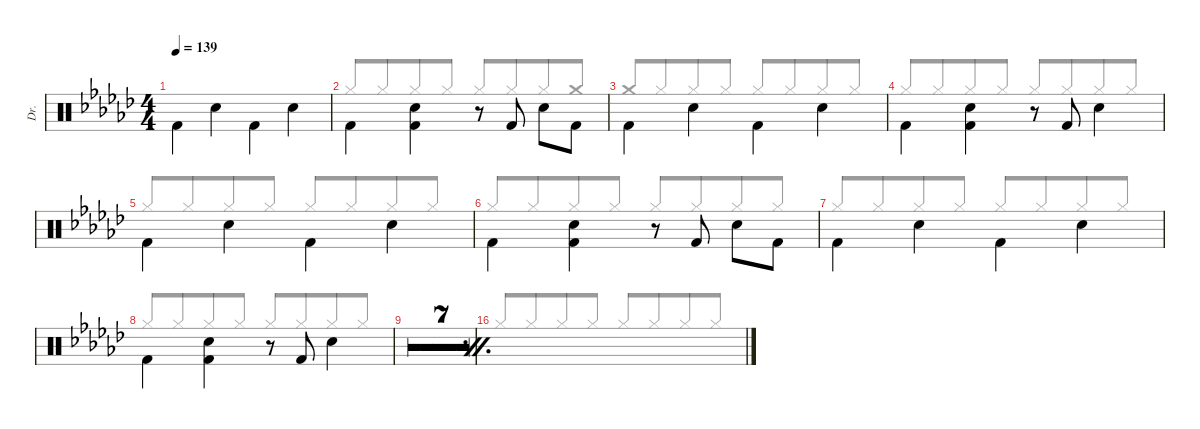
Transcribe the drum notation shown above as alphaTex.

\defaultSystemsLayout 4
\hideDynamics
\bracketExtendMode groupsimilarinstruments
\otherSystemsTrackNameOrientation horizontal
\track ("Drums" "Dr.") {multiBarRest instrument percussion}
\staff {score}
\articulation defaults
\voice
\ts (4 4)
\tempo 139
\clef neutral
\ks gb "Kick (hit) 2"{acc forcenatural}.4{dy f beam Down} "Snare (hit) 2"{acc forcenatural}.4{beam Down} "Kick (hit) 2"{acc forcenatural}.4{beam Down} "Snare (hit) 2"{acc forcenatural}.4{beam Down}
|
"Kick (hit) 2"{acc forcenatural}.4{beam Down} ("Kick (hit) 2"{acc forcenatural} "Snare (hit) 2"{acc forcenatural}).4{beam Down} r.8{beam Up} "Kick (hit) 2"{acc forcenatural}.8{beam Down} "Snare (hit) 2"{acc forcenatural}.8{beam Down} "Kick (hit) 2"{acc forcenatural}.8{beam Down} |
"Kick (hit) 2"{acc forcenatural}.4{beam Down} "Snare (hit) 2"{acc forcenatural}.4{beam Down} "Kick (hit) 2"{acc forcenatural}.4{beam Down} "Snare (hit) 2"{acc forcenatural}.4{beam Down} |
"Kick (hit) 2"{acc forcenatural}.4{beam Down} ("Kick (hit) 2"{acc forcenatural} "Snare (hit) 2"{acc forcenatural}).4{beam Down} r.8{beam Up} "Kick (hit) 2"{acc forcenatural}.8{beam Down} "Snare (hit) 2"{acc forcenatural}.4{beam Down} |
"Kick (hit) 2"{acc forcenatural}.4{beam Down} "Snare (hit) 2"{acc forcenatural}.4{beam Down} "Kick (hit) 2"{acc forcenatural}.4{beam Down} "Snare (hit) 2"{acc forcenatural}.4{beam Down} |
"Kick (hit) 2"{acc forcenatural}.4{beam Down} ("Kick (hit) 2"{acc forcenatural} "Snare (hit) 2"{acc forcenatural}).4{beam Down} r.8{beam Up} "Kick (hit) 2"{acc forcenatural}.8{beam Down} "Snare (hit) 2"{acc forcenatural}.8{beam Down} "Kick (hit) 2"{acc forcenatural}.8{beam Down} |
"Kick (hit) 2"{acc forcenatural}.4{beam Down} "Snare (hit) 2"{acc forcenatural}.4{beam Down} "Kick (hit) 2"{acc forcenatural}.4{beam Down} "Snare (hit) 2"{acc forcenatural}.4{beam Down} |
"Kick (hit) 2"{acc forcenatural}.4{beam Down} ("Kick (hit) 2"{acc forcenatural} "Snare (hit) 2"{acc forcenatural}).4{beam Down} r.8{beam Up} "Kick (hit) 2"{acc forcenatural}.8{beam Down} "Snare (hit) 2"{acc forcenatural}.4{beam Down} |
\simile firstofdouble
|
\simile secondofdouble
|
\simile firstofdouble
|
\simile secondofdouble
|
\simile firstofdouble
|
\simile secondofdouble
|
\simile firstofdouble
|
\simile secondofdouble
\voice
\clef neutral
\ottava regular
\simile none
\ks gb "Hi-Hat (closed)"{acc forcenatural}.8{dy f beam Up} "Hi-Hat (closed)"{acc forcenatural}.8{beam Up beam merge} "Hi-Hat (closed)"{acc forcenatural}.8{beam Up} "Hi-Hat (closed)"{acc forcenatural}.8{beam Up} "Hi-Hat (closed)"{acc forcenatural}.8{beam Up} "Hi-Hat (closed)"{acc forcenatural}.8{beam Up beam merge} "Hi-Hat (closed)"{acc forcenatural}.8{beam Up} "Hi-Hat (closed)"{acc forcenatural}.8{beam Up}
|
"Hi-Hat (closed)"{acc forcenatural}.8{beam Up beam merge} "Hi-Hat (closed)"{acc forcenatural}.8{beam Up beam merge} "Hi-Hat (closed)"{acc forcenatural}.8{beam Up} "Hi-Hat (closed)"{acc forcenatural}.8{beam Up} "Hi-Hat (closed)"{acc forcenatural}.8{beam Up} "Hi-Hat (closed)"{acc forcenatural}.8{beam Up beam merge} "Hi-Hat (closed)"{acc forcenatural}.8{beam Up beam merge} "Crash medium (hit)"{acc forcenatural}.8{beam Up} |
"Crash medium (hit)"{acc forcenatural}.8{beam Up} "Hi-Hat (closed)"{acc forcenatural}.8{beam Up beam merge} "Hi-Hat (closed)"{acc forcenatural}.8{beam Up} "Hi-Hat (closed)"{acc forcenatural}.8{beam Up} "Hi-Hat (closed)"{acc forcenatural}.8{beam Up} "Hi-Hat (closed)"{acc forcenatural}.8{beam Up beam merge} "Hi-Hat (closed)"{acc forcenatural}.8{beam Up} "Hi-Hat (closed)"{acc forcenatural}.8{beam Up} |
"Hi-Hat (closed)"{acc forcenatural}.8{beam Up} "Hi-Hat (closed)"{acc forcenatural}.8{beam Up beam merge} "Hi-Hat (closed)"{acc forcenatural}.8{beam Up} "Hi-Hat (closed)"{acc forcenatural}.8{beam Up} "Hi-Hat (closed)"{acc forcenatural}.8{beam Up beam merge} "Hi-Hat (closed)"{acc forcenatural}.8{beam Up beam merge} "Hi-Hat (closed)"{acc forcenatural}.8{beam Up beam merge} "Hi-Hat (closed)"{acc forcenatural}.8{beam Up} |
"Hi-Hat (closed)"{acc forcenatural}.8{beam Up} "Hi-Hat (closed)"{acc forcenatural}.8{beam Up beam merge} "Hi-Hat (closed)"{acc forcenatural}.8{beam Up} "Hi-Hat (closed)"{acc forcenatural}.8{beam Up} "Hi-Hat (closed)"{acc forcenatural}.8{beam Up} "Hi-Hat (closed)"{acc forcenatural}.8{beam Up beam merge} "Hi-Hat (closed)"{acc forcenatural}.8{beam Up} "Hi-Hat (closed)"{acc forcenatural}.8{beam Up} |
"Hi-Hat (closed)"{acc forcenatural}.8{beam Up beam merge} "Hi-Hat (closed)"{acc forcenatural}.8{beam Up beam merge} "Hi-Hat (closed)"{acc forcenatural}.8{beam Up} "Hi-Hat (closed)"{acc forcenatural}.8{beam Up} "Hi-Hat (closed)"{acc forcenatural}.8{beam Up} "Hi-Hat (closed)"{acc forcenatural}.8{beam Up beam merge} "Hi-Hat (closed)"{acc forcenatural}.8{beam Up beam merge} "Hi-Hat (closed)"{acc forcenatural}.8{beam Up} |
"Hi-Hat (closed)"{acc forcenatural}.8{beam Up} "Hi-Hat (closed)"{acc forcenatural}.8{beam Up beam merge} "Hi-Hat (closed)"{acc forcenatural}.8{beam Up} "Hi-Hat (closed)"{acc forcenatural}.8{beam Up} "Hi-Hat (closed)"{acc forcenatural}.8{beam Up} "Hi-Hat (closed)"{acc forcenatural}.8{beam Up beam merge} "Hi-Hat (closed)"{acc forcenatural}.8{beam Up} "Hi-Hat (closed)"{acc forcenatural}.8{beam Up} |
"Hi-Hat (closed)"{acc forcenatural}.8{beam Up} "Hi-Hat (closed)"{acc forcenatural}.8{beam Up beam merge} "Hi-Hat (closed)"{acc forcenatural}.8{beam Up} "Hi-Hat (closed)"{acc forcenatural}.8{beam Up} "Hi-Hat (closed)"{acc forcenatural}.8{beam Up beam merge} "Hi-Hat (closed)"{acc forcenatural}.8{beam Up beam merge} "Hi-Hat (closed)"{acc forcenatural}.8{beam Up beam merge} "Hi-Hat (closed)"{acc forcenatural}.8{beam Up} |
\simile firstofdouble
|
\simile secondofdouble
|
\simile firstofdouble
|
\simile secondofdouble
|
\simile firstofdouble
|
\simile secondofdouble
|
\simile firstofdouble
|
\simile secondofdouble
